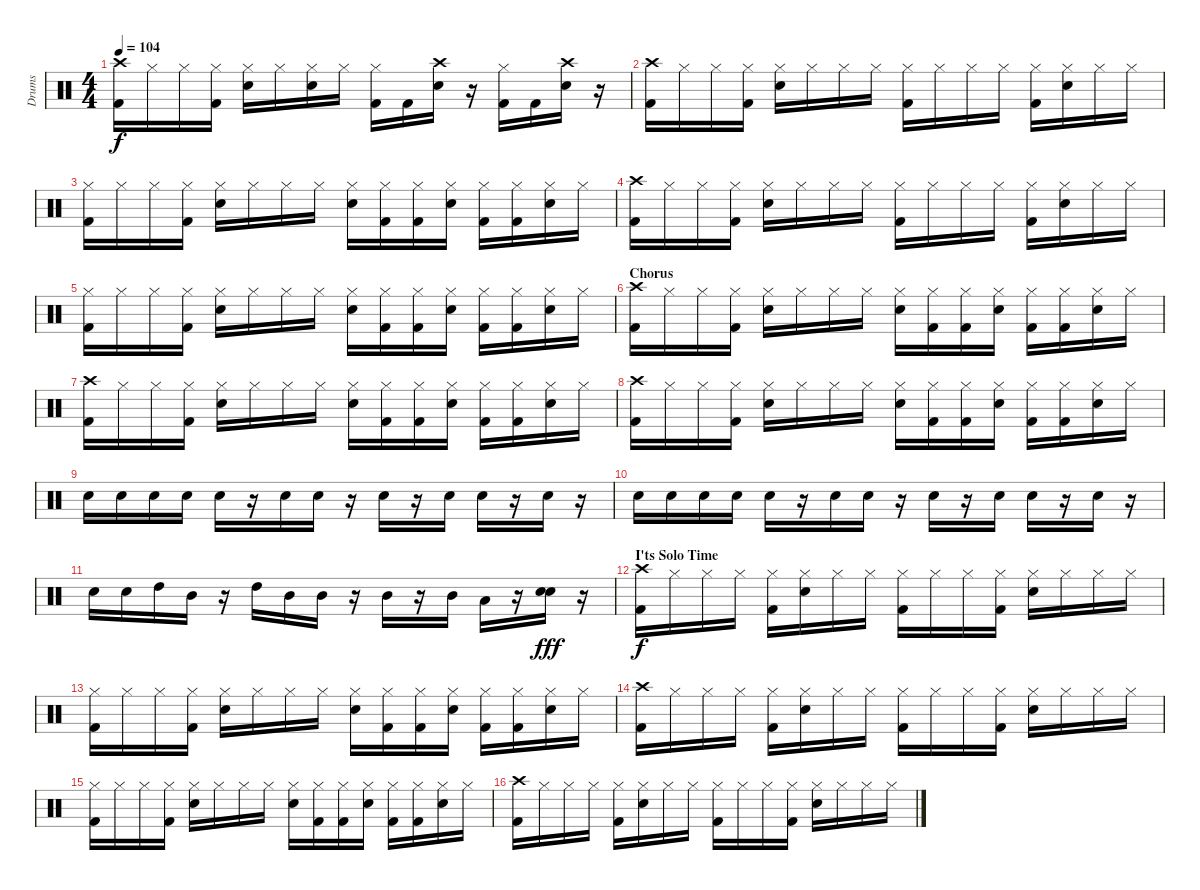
\track ("Drums" "Drums") {instrument percussion}
\staff {score}
\articulation defaults
\ts (4 4)
\tempo 104
\clef neutral
\ks c
("Crash high (hit)" "Kick (hit) 2").16{dy f} "Hi-Hat (closed)".16 "Hi-Hat (closed)".16 ("Hi-Hat (closed)" "Kick (hit) 2").16 ("Hi-Hat (closed)" "Snare (hit) 2").16 "Hi-Hat (closed)".16 ("Hi-Hat (closed)" "Snare (hit) 2").16 "Hi-Hat (closed)".16 ("Hi-Hat (closed)" "Kick (hit) 2").16 "Kick (hit) 2".16 ("Crash high (hit)" "Snare (hit) 2").16 r.16 ("Hi-Hat (closed)" "Kick (hit) 2").16 "Kick (hit) 2".16 ("Crash high (hit)" "Snare (hit) 2").16 r.16 |
("Crash high (hit)" "Kick (hit) 2").16 "Hi-Hat (closed)".16 "Hi-Hat (closed)".16 ("Hi-Hat (closed)" "Kick (hit) 2").16 ("Hi-Hat (closed)" "Snare (hit) 2").16 "Hi-Hat (closed)".16 "Hi-Hat (closed)".16 "Hi-Hat (closed)".16 ("Hi-Hat (closed)" "Kick (hit) 2").16 "Hi-Hat (closed)".16 "Hi-Hat (closed)".16 "Hi-Hat (closed)".16 ("Hi-Hat (closed)" "Kick (hit) 2").16 ("Hi-Hat (closed)" "Snare (hit) 2").16 "Hi-Hat (closed)".16 "Hi-Hat (closed)".16 |
("Hi-Hat (closed)" "Kick (hit) 2").16 "Hi-Hat (closed)".16 "Hi-Hat (closed)".16 ("Hi-Hat (closed)" "Kick (hit) 2").16 ("Hi-Hat (closed)" "Snare (hit) 2").16 "Hi-Hat (closed)".16 "Hi-Hat (closed)".16 "Hi-Hat (closed)".16 ("Hi-Hat (closed)" "Snare (hit) 2").16 ("Hi-Hat (closed)" "Kick (hit) 2").16 ("Hi-Hat (closed)" "Kick (hit) 2").16 ("Hi-Hat (closed)" "Snare (hit) 2").16 ("Hi-Hat (closed)" "Kick (hit) 2").16 ("Hi-Hat (closed)" "Kick (hit) 2").16 ("Hi-Hat (closed)" "Snare (hit) 2").16 "Hi-Hat (closed)".16 |
("Crash high (hit)" "Kick (hit) 2").16 "Hi-Hat (closed)".16 "Hi-Hat (closed)".16 ("Hi-Hat (closed)" "Kick (hit) 2").16 ("Hi-Hat (closed)" "Snare (hit) 2").16 "Hi-Hat (closed)".16 "Hi-Hat (closed)".16 "Hi-Hat (closed)".16 ("Hi-Hat (closed)" "Kick (hit) 2").16 "Hi-Hat (closed)".16 "Hi-Hat (closed)".16 "Hi-Hat (closed)".16 ("Hi-Hat (closed)" "Kick (hit) 2").16 ("Hi-Hat (closed)" "Snare (hit) 2").16 "Hi-Hat (closed)".16 "Hi-Hat (closed)".16 |
("Hi-Hat (closed)" "Kick (hit) 2").16 "Hi-Hat (closed)".16 "Hi-Hat (closed)".16 ("Hi-Hat (closed)" "Kick (hit) 2").16 ("Hi-Hat (closed)" "Snare (hit) 2").16 "Hi-Hat (closed)".16 "Hi-Hat (closed)".16 "Hi-Hat (closed)".16 ("Hi-Hat (closed)" "Snare (hit) 2").16 ("Hi-Hat (closed)" "Kick (hit) 2").16 ("Hi-Hat (closed)" "Kick (hit) 2").16 ("Hi-Hat (closed)" "Snare (hit) 2").16 ("Hi-Hat (closed)" "Kick (hit) 2").16 ("Hi-Hat (closed)" "Kick (hit) 2").16 ("Hi-Hat (closed)" "Snare (hit) 2").16 "Hi-Hat (closed)".16 |
\section ("" "Chorus")
("Crash high (hit)" "Kick (hit) 2").16 "Hi-Hat (closed)".16 "Hi-Hat (closed)".16 ("Hi-Hat (closed)" "Kick (hit) 2").16 ("Hi-Hat (closed)" "Snare (hit) 2").16 "Hi-Hat (closed)".16 "Hi-Hat (closed)".16 "Hi-Hat (closed)".16 ("Hi-Hat (closed)" "Snare (hit) 2").16 ("Hi-Hat (closed)" "Kick (hit) 2").16 ("Hi-Hat (closed)" "Kick (hit) 2").16 ("Hi-Hat (closed)" "Snare (hit) 2").16 ("Hi-Hat (closed)" "Kick (hit) 2").16 ("Hi-Hat (closed)" "Kick (hit) 2").16 ("Hi-Hat (closed)" "Snare (hit) 2").16 "Hi-Hat (closed)".16 |
("Crash high (hit)" "Kick (hit) 2").16 "Hi-Hat (closed)".16 "Hi-Hat (closed)".16 ("Hi-Hat (closed)" "Kick (hit) 2").16 ("Hi-Hat (closed)" "Snare (hit) 2").16 "Hi-Hat (closed)".16 "Hi-Hat (closed)".16 "Hi-Hat (closed)".16 ("Hi-Hat (closed)" "Snare (hit) 2").16 ("Hi-Hat (closed)" "Kick (hit) 2").16 ("Hi-Hat (closed)" "Kick (hit) 2").16 ("Hi-Hat (closed)" "Snare (hit) 2").16 ("Hi-Hat (closed)" "Kick (hit) 2").16 ("Hi-Hat (closed)" "Kick (hit) 2").16 ("Hi-Hat (closed)" "Snare (hit) 2").16 "Hi-Hat (closed)".16 |
("Crash high (hit)" "Kick (hit) 2").16 "Hi-Hat (closed)".16 "Hi-Hat (closed)".16 ("Hi-Hat (closed)" "Kick (hit) 2").16 ("Hi-Hat (closed)" "Snare (hit) 2").16 "Hi-Hat (closed)".16 "Hi-Hat (closed)".16 "Hi-Hat (closed)".16 ("Hi-Hat (closed)" "Snare (hit) 2").16 ("Hi-Hat (closed)" "Kick (hit) 2").16 ("Hi-Hat (closed)" "Kick (hit) 2").16 ("Hi-Hat (closed)" "Snare (hit) 2").16 ("Hi-Hat (closed)" "Kick (hit) 2").16 ("Hi-Hat (closed)" "Kick (hit) 2").16 ("Hi-Hat (closed)" "Snare (hit) 2").16 "Hi-Hat (closed)".16 |
"Snare (hit) 2".16 "Snare (hit) 2".16 "Snare (hit) 2".16 "Snare (hit) 2".16 "Snare (hit) 2".16 r.16 "Snare (hit) 2".16 "Snare (hit) 2".16 r.16 "Snare (hit) 2".16 r.16 "Snare (hit) 2".16 "Snare (hit) 2".16 r.16 "Snare (hit) 2".16 r.16 |
"Snare (hit) 2".16 "Snare (hit) 2".16 "Snare (hit) 2".16 "Snare (hit) 2".16 "Snare (hit) 2".16 r.16 "Snare (hit) 2".16 "Snare (hit) 2".16 r.16 "Snare (hit) 2".16 r.16 "Snare (hit) 2".16 "Snare (hit) 2".16 r.16 "Snare (hit) 2".16 r.16 |
"Snare (hit) 2".16 "Snare (hit) 2".16 "High Tom (hit)".16 "Mid Tom (hit)".16 r.16 "High Tom (hit)".16 "Mid Tom (hit)".16 "Mid Tom (hit)".16 r.16 "Mid Tom (hit)".16 r.16 "Mid Tom (hit)".16 "Low Tom (hit)".16 r.16 ("Snare (hit) 2" "Snare (hit) 2").16{dy fff} r.16 |
\section ("" "I'ts Solo Time")
("Crash high (hit)" "Kick (hit) 2").16{dy f} "Hi-Hat (closed)".16 "Hi-Hat (closed)".16 "Hi-Hat (closed)".16 ("Hi-Hat (closed)" "Kick (hit) 2").16 ("Hi-Hat (closed)" "Snare (hit) 2").16 "Hi-Hat (closed)".16 "Hi-Hat (closed)".16 ("Hi-Hat (closed)" "Kick (hit) 2").16 "Hi-Hat (closed)".16 "Hi-Hat (closed)".16 ("Hi-Hat (closed)" "Kick (hit) 2").16 ("Hi-Hat (closed)" "Snare (hit) 2").16 "Hi-Hat (closed)".16 "Hi-Hat (closed)".16 "Hi-Hat (closed)".16 |
("Hi-Hat (closed)" "Kick (hit) 2").16 "Hi-Hat (closed)".16 "Hi-Hat (closed)".16 ("Hi-Hat (closed)" "Kick (hit) 2").16 ("Hi-Hat (closed)" "Snare (hit) 2").16 "Hi-Hat (closed)".16 "Hi-Hat (closed)".16 "Hi-Hat (closed)".16 ("Hi-Hat (closed)" "Snare (hit) 2").16 ("Hi-Hat (closed)" "Kick (hit) 2").16 ("Hi-Hat (closed)" "Kick (hit) 2").16 ("Hi-Hat (closed)" "Snare (hit) 2").16 ("Hi-Hat (closed)" "Kick (hit) 2").16 ("Hi-Hat (closed)" "Kick (hit) 2").16 ("Hi-Hat (closed)" "Snare (hit) 2").16 "Hi-Hat (closed)".16 |
("Crash high (hit)" "Kick (hit) 2").16 "Hi-Hat (closed)".16 "Hi-Hat (closed)".16 "Hi-Hat (closed)".16 ("Hi-Hat (closed)" "Kick (hit) 2").16 ("Hi-Hat (closed)" "Snare (hit) 2").16 "Hi-Hat (closed)".16 "Hi-Hat (closed)".16 ("Hi-Hat (closed)" "Kick (hit) 2").16 "Hi-Hat (closed)".16 "Hi-Hat (closed)".16 ("Hi-Hat (closed)" "Kick (hit) 2").16 ("Hi-Hat (closed)" "Snare (hit) 2").16 "Hi-Hat (closed)".16 "Hi-Hat (closed)".16 "Hi-Hat (closed)".16 |
("Hi-Hat (closed)" "Kick (hit) 2").16 "Hi-Hat (closed)".16 "Hi-Hat (closed)".16 ("Hi-Hat (closed)" "Kick (hit) 2").16 ("Hi-Hat (closed)" "Snare (hit) 2").16 "Hi-Hat (closed)".16 "Hi-Hat (closed)".16 "Hi-Hat (closed)".16 ("Hi-Hat (closed)" "Snare (hit) 2").16 ("Hi-Hat (closed)" "Kick (hit) 2").16 ("Hi-Hat (closed)" "Kick (hit) 2").16 ("Hi-Hat (closed)" "Snare (hit) 2").16 ("Hi-Hat (closed)" "Kick (hit) 2").16 ("Hi-Hat (closed)" "Kick (hit) 2").16 ("Hi-Hat (closed)" "Snare (hit) 2").16 "Hi-Hat (closed)".16 |
("Crash high (hit)" "Kick (hit) 2").16 "Hi-Hat (closed)".16 "Hi-Hat (closed)".16 "Hi-Hat (closed)".16 ("Hi-Hat (closed)" "Kick (hit) 2").16 ("Hi-Hat (closed)" "Snare (hit) 2").16 "Hi-Hat (closed)".16 "Hi-Hat (closed)".16 ("Hi-Hat (closed)" "Kick (hit) 2").16 "Hi-Hat (closed)".16 "Hi-Hat (closed)".16 ("Hi-Hat (closed)" "Kick (hit) 2").16 ("Hi-Hat (closed)" "Snare (hit) 2").16 "Hi-Hat (closed)".16 "Hi-Hat (closed)".16 "Hi-Hat (closed)".16
